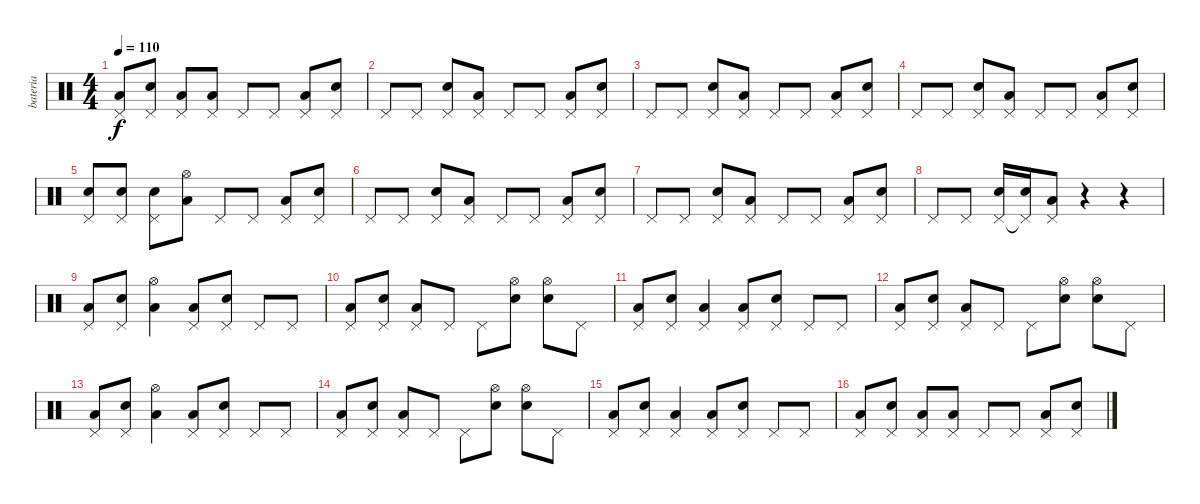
\track ("bateria" "bateria") {instrument percussion}
\staff {score}
\articulation defaults
\ts (4 4)
\tempo 110
\clef neutral
\ks c
("Pedal Hi-Hat (hit)" "Low Floor Tom (hit)").8{dy f} ("Pedal Hi-Hat (hit)" "Electric Snare (hit)").8 ("Pedal Hi-Hat (hit)" "Low Floor Tom (hit)").8 ("Pedal Hi-Hat (hit)" "Low Floor Tom (hit)").8 "Pedal Hi-Hat (hit)".8 "Pedal Hi-Hat (hit)".8 ("Pedal Hi-Hat (hit)" "Low Floor Tom (hit)").8 ("Pedal Hi-Hat (hit)" "Electric Snare (hit)").8 |
"Pedal Hi-Hat (hit)".8 "Pedal Hi-Hat (hit)".8 ("Pedal Hi-Hat (hit)" "Electric Snare (hit)").8 ("Pedal Hi-Hat (hit)" "Low Floor Tom (hit)").8 "Pedal Hi-Hat (hit)".8 "Pedal Hi-Hat (hit)".8 ("Pedal Hi-Hat (hit)" "Low Floor Tom (hit)").8 ("Pedal Hi-Hat (hit)" "Electric Snare (hit)").8 |
"Pedal Hi-Hat (hit)".8 "Pedal Hi-Hat (hit)".8 ("Pedal Hi-Hat (hit)" "Electric Snare (hit)").8 ("Pedal Hi-Hat (hit)" "Low Floor Tom (hit)").8 "Pedal Hi-Hat (hit)".8 "Pedal Hi-Hat (hit)".8 ("Pedal Hi-Hat (hit)" "Low Floor Tom (hit)").8 ("Pedal Hi-Hat (hit)" "Electric Snare (hit)").8 |
"Pedal Hi-Hat (hit)".8 "Pedal Hi-Hat (hit)".8 ("Pedal Hi-Hat (hit)" "Electric Snare (hit)").8 ("Pedal Hi-Hat (hit)" "Low Floor Tom (hit)").8 "Pedal Hi-Hat (hit)".8 "Pedal Hi-Hat (hit)".8 ("Pedal Hi-Hat (hit)" "Low Floor Tom (hit)").8 ("Pedal Hi-Hat (hit)" "Electric Snare (hit)").8 |
("Pedal Hi-Hat (hit)" "Electric Snare (hit)").8 ("Pedal Hi-Hat (hit)" "Electric Snare (hit)").8 ("Pedal Hi-Hat (hit)" "Electric Snare (hit)").8 ("Hi-Hat (open)" "Low Floor Tom (hit)").8 "Pedal Hi-Hat (hit)".8 "Pedal Hi-Hat (hit)".8 ("Pedal Hi-Hat (hit)" "Low Floor Tom (hit)").8 ("Pedal Hi-Hat (hit)" "Electric Snare (hit)").8 |
"Pedal Hi-Hat (hit)".8 "Pedal Hi-Hat (hit)".8 ("Pedal Hi-Hat (hit)" "Electric Snare (hit)").8 ("Pedal Hi-Hat (hit)" "Low Floor Tom (hit)").8 "Pedal Hi-Hat (hit)".8 "Pedal Hi-Hat (hit)".8 ("Pedal Hi-Hat (hit)" "Low Floor Tom (hit)").8 ("Pedal Hi-Hat (hit)" "Electric Snare (hit)").8 |
"Pedal Hi-Hat (hit)".8 "Pedal Hi-Hat (hit)".8 ("Pedal Hi-Hat (hit)" "Electric Snare (hit)").8 ("Pedal Hi-Hat (hit)" "Low Floor Tom (hit)").8 "Pedal Hi-Hat (hit)".8 "Pedal Hi-Hat (hit)".8 ("Pedal Hi-Hat (hit)" "Low Floor Tom (hit)").8 ("Pedal Hi-Hat (hit)" "Electric Snare (hit)").8 |
"Pedal Hi-Hat (hit)".8 "Pedal Hi-Hat (hit)".8 ("Pedal Hi-Hat (hit)" "Electric Snare (hit)").16 ("Pedal Hi-Hat (hit)"{t} "Electric Snare (hit)").16 ("Pedal Hi-Hat (hit)" "Low Floor Tom (hit)").8 r.4 r.4 |
("Pedal Hi-Hat (hit)" "Low Floor Tom (hit)").8 ("Pedal Hi-Hat (hit)" "Electric Snare (hit)").8 ("Hi-Hat (open)" "Low Floor Tom (hit)").4 ("Pedal Hi-Hat (hit)" "Low Floor Tom (hit)").8 ("Pedal Hi-Hat (hit)" "Electric Snare (hit)").8 "Pedal Hi-Hat (hit)".8 "Pedal Hi-Hat (hit)".8 |
("Pedal Hi-Hat (hit)" "Low Floor Tom (hit)").8 ("Pedal Hi-Hat (hit)" "Electric Snare (hit)").8 ("Pedal Hi-Hat (hit)" "Low Floor Tom (hit)").8 "Pedal Hi-Hat (hit)".8 "Pedal Hi-Hat (hit)".8 ("Hi-Hat (open)" "Electric Snare (hit)").8 ("Hi-Hat (open)" "Electric Snare (hit)").8 "Pedal Hi-Hat (hit)".8 |
("Pedal Hi-Hat (hit)" "Low Floor Tom (hit)").8 ("Pedal Hi-Hat (hit)" "Electric Snare (hit)").8 ("Pedal Hi-Hat (hit)" "Low Floor Tom (hit)").4 ("Pedal Hi-Hat (hit)" "Low Floor Tom (hit)").8 ("Pedal Hi-Hat (hit)" "Electric Snare (hit)").8 "Pedal Hi-Hat (hit)".8 "Pedal Hi-Hat (hit)".8 |
("Pedal Hi-Hat (hit)" "Low Floor Tom (hit)").8 ("Pedal Hi-Hat (hit)" "Electric Snare (hit)").8 ("Pedal Hi-Hat (hit)" "Low Floor Tom (hit)").8 "Pedal Hi-Hat (hit)".8 "Pedal Hi-Hat (hit)".8 ("Hi-Hat (open)" "Electric Snare (hit)").8 ("Hi-Hat (open)" "Electric Snare (hit)").8 "Pedal Hi-Hat (hit)".8 |
("Pedal Hi-Hat (hit)" "Low Floor Tom (hit)").8 ("Pedal Hi-Hat (hit)" "Electric Snare (hit)").8 ("Hi-Hat (open)" "Low Floor Tom (hit)").4 ("Pedal Hi-Hat (hit)" "Low Floor Tom (hit)").8 ("Pedal Hi-Hat (hit)" "Electric Snare (hit)").8 "Pedal Hi-Hat (hit)".8 "Pedal Hi-Hat (hit)".8 |
("Pedal Hi-Hat (hit)" "Low Floor Tom (hit)").8 ("Pedal Hi-Hat (hit)" "Electric Snare (hit)").8 ("Pedal Hi-Hat (hit)" "Low Floor Tom (hit)").8 "Pedal Hi-Hat (hit)".8 "Pedal Hi-Hat (hit)".8 ("Hi-Hat (open)" "Electric Snare (hit)").8 ("Hi-Hat (open)" "Electric Snare (hit)").8 "Pedal Hi-Hat (hit)".8 |
("Pedal Hi-Hat (hit)" "Low Floor Tom (hit)").8 ("Pedal Hi-Hat (hit)" "Electric Snare (hit)").8 ("Pedal Hi-Hat (hit)" "Low Floor Tom (hit)").4 ("Pedal Hi-Hat (hit)" "Low Floor Tom (hit)").8 ("Pedal Hi-Hat (hit)" "Electric Snare (hit)").8 "Pedal Hi-Hat (hit)".8 "Pedal Hi-Hat (hit)".8 |
("Pedal Hi-Hat (hit)" "Low Floor Tom (hit)").8 ("Pedal Hi-Hat (hit)" "Electric Snare (hit)").8 ("Pedal Hi-Hat (hit)" "Low Floor Tom (hit)").8 ("Pedal Hi-Hat (hit)" "Low Floor Tom (hit)").8 "Pedal Hi-Hat (hit)".8 "Pedal Hi-Hat (hit)".8 ("Pedal Hi-Hat (hit)" "Low Floor Tom (hit)").8 ("Pedal Hi-Hat (hit)" "Electric Snare (hit)").8
